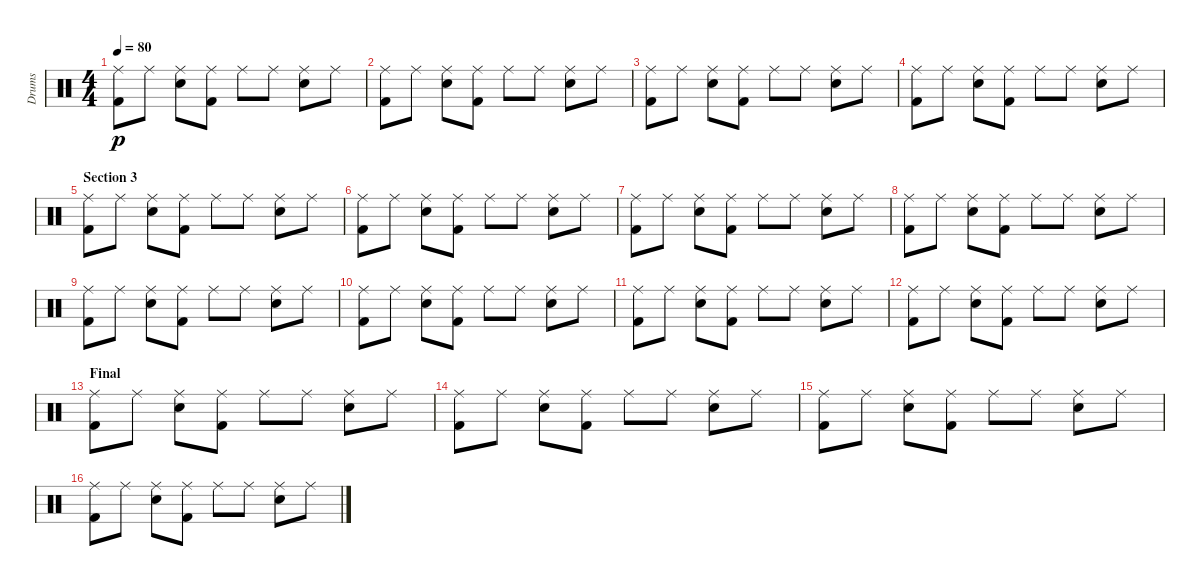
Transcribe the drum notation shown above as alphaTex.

\track ("Drums" "Drums") {instrument percussion}
\staff {score}
\articulation defaults
\ts (4 4)
\tempo 80
\clef neutral
\ks c
("Ride (middle)" "Kick (hit) 2").8{dy p} "Ride (middle)".8 ("Ride (middle)" "Electric Snare (hit)").8 ("Ride (middle)" "Kick (hit) 2").8 "Ride (middle)".8 "Ride (middle)".8 ("Ride (middle)" "Electric Snare (hit)").8 "Ride (middle)".8 |
("Ride (middle)" "Kick (hit) 2").8 "Ride (middle)".8 ("Ride (middle)" "Electric Snare (hit)").8 ("Ride (middle)" "Kick (hit) 2").8 "Ride (middle)".8 "Ride (middle)".8 ("Ride (middle)" "Electric Snare (hit)").8 "Ride (middle)".8 |
("Ride (middle)" "Kick (hit) 2").8 "Ride (middle)".8 ("Ride (middle)" "Electric Snare (hit)").8 ("Ride (middle)" "Kick (hit) 2").8 "Ride (middle)".8 "Ride (middle)".8 ("Ride (middle)" "Electric Snare (hit)").8 "Ride (middle)".8 |
("Ride (middle)" "Kick (hit) 2").8 "Ride (middle)".8 ("Ride (middle)" "Electric Snare (hit)").8 ("Ride (middle)" "Kick (hit) 2").8 "Ride (middle)".8 "Ride (middle)".8 ("Ride (middle)" "Electric Snare (hit)").8 "Ride (middle)".8 |
\section ("" "Section 3")
("Ride (middle)" "Kick (hit) 2").8 "Ride (middle)".8 ("Ride (middle)" "Electric Snare (hit)").8 ("Ride (middle)" "Kick (hit) 2").8 "Ride (middle)".8 "Ride (middle)".8 ("Ride (middle)" "Electric Snare (hit)").8 "Ride (middle)".8 |
("Ride (middle)" "Kick (hit) 2").8 "Ride (middle)".8 ("Ride (middle)" "Electric Snare (hit)").8 ("Ride (middle)" "Kick (hit) 2").8 "Ride (middle)".8 "Ride (middle)".8 ("Ride (middle)" "Electric Snare (hit)").8 "Ride (middle)".8 |
("Ride (middle)" "Kick (hit) 2").8 "Ride (middle)".8 ("Ride (middle)" "Electric Snare (hit)").8 ("Ride (middle)" "Kick (hit) 2").8 "Ride (middle)".8 "Ride (middle)".8 ("Ride (middle)" "Electric Snare (hit)").8 "Ride (middle)".8 |
("Ride (middle)" "Kick (hit) 2").8 "Ride (middle)".8 ("Ride (middle)" "Electric Snare (hit)").8 ("Ride (middle)" "Kick (hit) 2").8 "Ride (middle)".8 "Ride (middle)".8 ("Ride (middle)" "Electric Snare (hit)").8 "Ride (middle)".8 |
("Ride (middle)" "Kick (hit) 2").8 "Ride (middle)".8 ("Ride (middle)" "Electric Snare (hit)").8 ("Ride (middle)" "Kick (hit) 2").8 "Ride (middle)".8 "Ride (middle)".8 ("Ride (middle)" "Electric Snare (hit)").8 "Ride (middle)".8 |
("Ride (middle)" "Kick (hit) 2").8 "Ride (middle)".8 ("Ride (middle)" "Electric Snare (hit)").8 ("Ride (middle)" "Kick (hit) 2").8 "Ride (middle)".8 "Ride (middle)".8 ("Ride (middle)" "Electric Snare (hit)").8 "Ride (middle)".8 |
("Ride (middle)" "Kick (hit) 2").8 "Ride (middle)".8 ("Ride (middle)" "Electric Snare (hit)").8 ("Ride (middle)" "Kick (hit) 2").8 "Ride (middle)".8 "Ride (middle)".8 ("Ride (middle)" "Electric Snare (hit)").8 "Ride (middle)".8 |
("Ride (middle)" "Kick (hit) 2").8 "Ride (middle)".8 ("Ride (middle)" "Electric Snare (hit)").8 ("Ride (middle)" "Kick (hit) 2").8 "Ride (middle)".8 "Ride (middle)".8 ("Ride (middle)" "Electric Snare (hit)").8 "Ride (middle)".8 |
\section ("" "Final")
("Ride (middle)" "Kick (hit) 2").8 "Ride (middle)".8 ("Ride (middle)" "Electric Snare (hit)").8 ("Ride (middle)" "Kick (hit) 2").8 "Ride (middle)".8 "Ride (middle)".8 ("Ride (middle)" "Electric Snare (hit)").8 "Ride (middle)".8 |
("Ride (middle)" "Kick (hit) 2").8 "Ride (middle)".8 ("Ride (middle)" "Electric Snare (hit)").8 ("Ride (middle)" "Kick (hit) 2").8 "Ride (middle)".8 "Ride (middle)".8 ("Ride (middle)" "Electric Snare (hit)").8 "Ride (middle)".8 |
("Ride (middle)" "Kick (hit) 2").8 "Ride (middle)".8 ("Ride (middle)" "Electric Snare (hit)").8 ("Ride (middle)" "Kick (hit) 2").8 "Ride (middle)".8 "Ride (middle)".8 ("Ride (middle)" "Electric Snare (hit)").8 "Ride (middle)".8 |
("Ride (middle)" "Kick (hit) 2").8 "Ride (middle)".8 ("Ride (middle)" "Electric Snare (hit)").8 ("Ride (middle)" "Kick (hit) 2").8 "Ride (middle)".8 "Ride (middle)".8 ("Ride (middle)" "Electric Snare (hit)").8 "Ride (middle)".8
